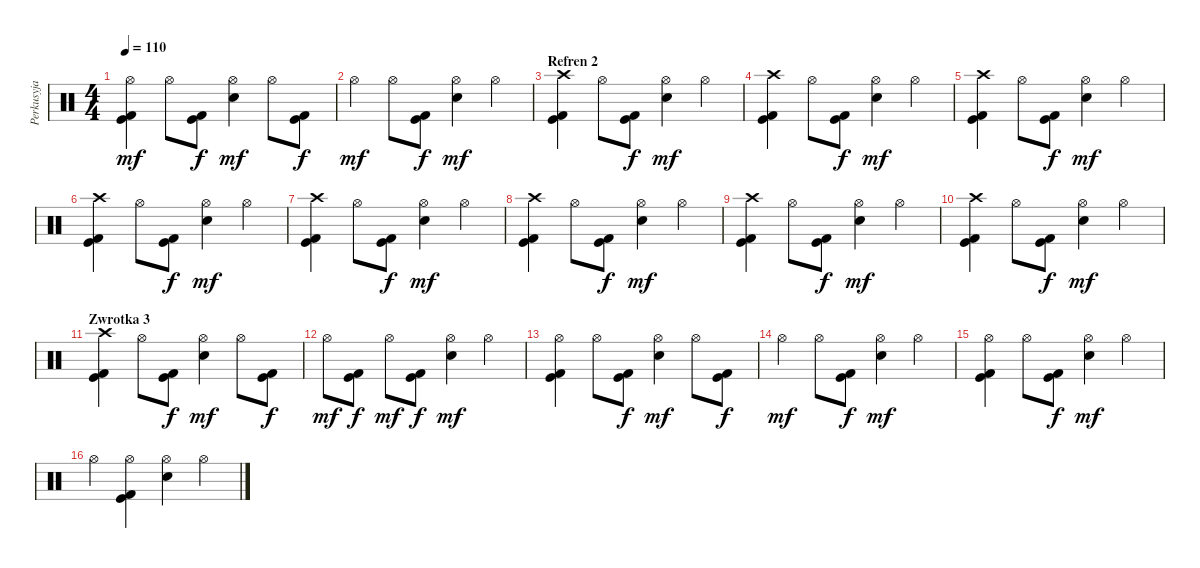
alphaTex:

\track ("Perkusyja" "Perkusyja") {instrument percussion}
\staff {score}
\articulation defaults
\ts (4 4)
\tempo 110
\clef neutral
\ks c
("Hi-Hat (open)" "Kick (hit) 2" "Kick (hit)").4{dy mf} "Hi-Hat (open)".8 ("Kick (hit) 2" "Kick (hit)").8{dy f} ("Hi-Hat (open)" "Snare (hit) 2").4{dy mf} "Hi-Hat (open)".8 ("Kick (hit) 2" "Kick (hit)").8{dy f} |
"Hi-Hat (open)".4{dy mf} "Hi-Hat (open)".8 ("Kick (hit) 2" "Kick (hit)").8{dy f} ("Hi-Hat (open)" "Snare (hit) 2").4{dy mf} "Hi-Hat (open)".4 |
\section ("" "Refren 2")
("Crash high (hit)" "Kick (hit) 2" "Kick (hit)").4 "Hi-Hat (open)".8 ("Kick (hit) 2" "Kick (hit)").8{dy f} ("Hi-Hat (open)" "Snare (hit) 2").4{dy mf} "Hi-Hat (open)".4 |
("Crash high (hit)" "Kick (hit) 2" "Kick (hit)").4 "Hi-Hat (open)".8 ("Kick (hit) 2" "Kick (hit)").8{dy f} ("Hi-Hat (open)" "Snare (hit) 2").4{dy mf} "Hi-Hat (open)".4 |
("Crash high (hit)" "Kick (hit) 2" "Kick (hit)").4 "Hi-Hat (open)".8 ("Kick (hit) 2" "Kick (hit)").8{dy f} ("Hi-Hat (open)" "Snare (hit) 2").4{dy mf} "Hi-Hat (open)".4 |
("Crash high (hit)" "Kick (hit) 2" "Kick (hit)").4 "Hi-Hat (open)".8 ("Kick (hit) 2" "Kick (hit)").8{dy f} ("Hi-Hat (open)" "Snare (hit) 2").4{dy mf} "Hi-Hat (open)".4 |
("Crash high (hit)" "Kick (hit) 2" "Kick (hit)").4 "Hi-Hat (open)".8 ("Kick (hit) 2" "Kick (hit)").8{dy f} ("Hi-Hat (open)" "Snare (hit) 2").4{dy mf} "Hi-Hat (open)".4 |
("Crash high (hit)" "Kick (hit) 2" "Kick (hit)").4 "Hi-Hat (open)".8 ("Kick (hit) 2" "Kick (hit)").8{dy f} ("Hi-Hat (open)" "Snare (hit) 2").4{dy mf} "Hi-Hat (open)".4 |
("Crash high (hit)" "Kick (hit) 2" "Kick (hit)").4 "Hi-Hat (open)".8 ("Kick (hit) 2" "Kick (hit)").8{dy f} ("Hi-Hat (open)" "Snare (hit) 2").4{dy mf} "Hi-Hat (open)".4 |
("Crash high (hit)" "Kick (hit) 2" "Kick (hit)").4 "Hi-Hat (open)".8 ("Kick (hit) 2" "Kick (hit)").8{dy f} ("Hi-Hat (open)" "Snare (hit) 2").4{dy mf} "Hi-Hat (open)".4 |
\section ("" "Zwrotka 3")
("Crash high (hit)" "Kick (hit) 2" "Kick (hit)").4 "Hi-Hat (open)".8 ("Kick (hit) 2" "Kick (hit)").8{dy f} ("Hi-Hat (open)" "Snare (hit) 2").4{dy mf} "Hi-Hat (open)".8 ("Kick (hit) 2" "Kick (hit)").8{dy f} |
"Hi-Hat (open)".8{dy mf} ("Kick (hit) 2" "Kick (hit)").8{dy f} "Hi-Hat (open)".8{dy mf} ("Kick (hit) 2" "Kick (hit)").8{dy f} ("Hi-Hat (open)" "Snare (hit) 2").4{dy mf} "Hi-Hat (open)".4 |
("Hi-Hat (open)" "Kick (hit) 2" "Kick (hit)").4 "Hi-Hat (open)".8 ("Kick (hit) 2" "Kick (hit)").8{dy f} ("Hi-Hat (open)" "Snare (hit) 2").4{dy mf} "Hi-Hat (open)".8 ("Kick (hit) 2" "Kick (hit)").8{dy f} |
"Hi-Hat (open)".4{dy mf} "Hi-Hat (open)".8 ("Kick (hit) 2" "Kick (hit)").8{dy f} ("Hi-Hat (open)" "Snare (hit) 2").4{dy mf} "Hi-Hat (open)".4 |
("Hi-Hat (open)" "Kick (hit) 2" "Kick (hit)").4 "Hi-Hat (open)".8 ("Kick (hit) 2" "Kick (hit)").8{dy f} ("Hi-Hat (open)" "Snare (hit) 2").4{dy mf} "Hi-Hat (open)".4 |
"Hi-Hat (open)".4 ("Hi-Hat (open)" "Kick (hit) 2" "Kick (hit)").4 ("Hi-Hat (open)" "Snare (hit) 2").4 "Hi-Hat (open)".4
